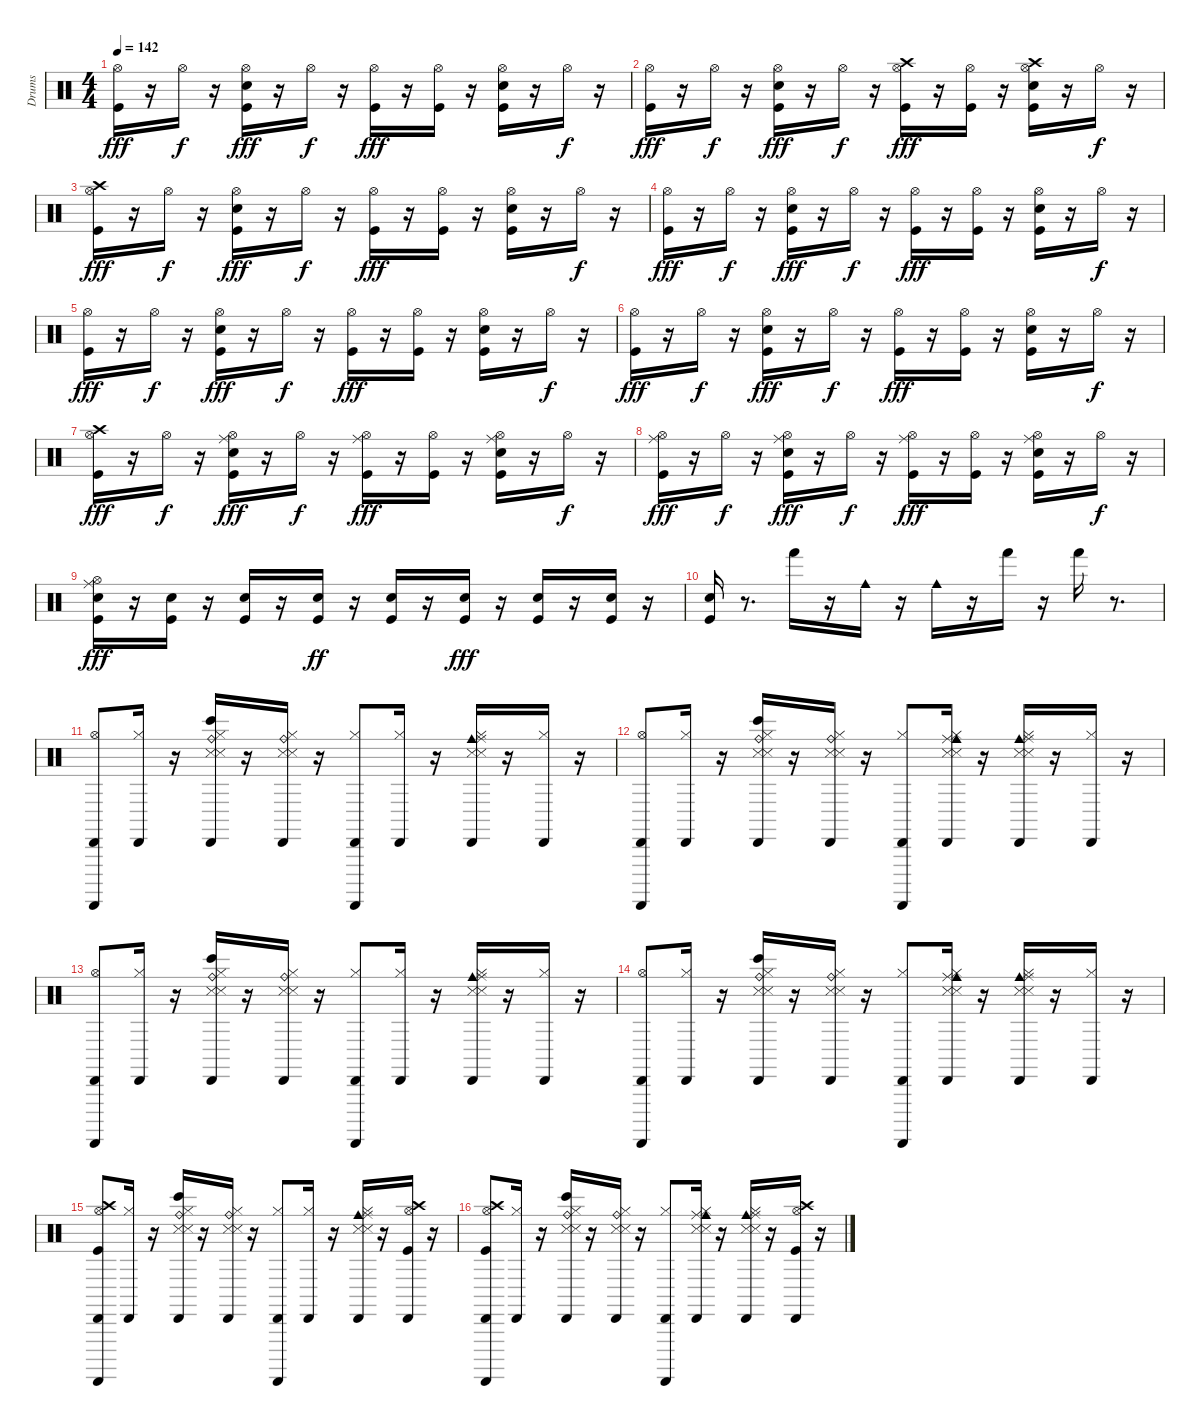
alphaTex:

\track ("Drums" "Drums") {instrument percussion}
\staff {score}
\articulation defaults
\ts (4 4)
\tempo 142
\clef neutral
\ks c
("Hi-Hat (open)" "Kick (hit)").16{dy fff} r.16 "Hi-Hat (open)".16{dy f} r.16 ("Snare (hit) 2" "Kick (hit)" "Hi-Hat (open)").16{dy fff} r.16 "Hi-Hat (open)".16{dy f} r.16 ("Kick (hit)" "Hi-Hat (open)").16{dy fff} r.16 ("Kick (hit)" "Hi-Hat (open)").16 r.16 ("Kick (hit)" "Snare (hit) 2" "Hi-Hat (open)").16 r.16 "Hi-Hat (open)".16{dy f} r.16 |
("Hi-Hat (open)" "Kick (hit)").16{dy fff} r.16 "Hi-Hat (open)".16{dy f} r.16 ("Snare (hit) 2" "Kick (hit)" "Hi-Hat (open)").16{dy fff} r.16 "Hi-Hat (open)".16{dy f} r.16 ("Kick (hit)" "Hi-Hat (open)" "Crash high (hit)").16{dy fff} r.16 ("Kick (hit)" "Hi-Hat (open)").16 r.16 ("Kick (hit)" "Snare (hit) 2" "Hi-Hat (open)" "Crash high (hit)").16 r.16 "Hi-Hat (open)".16{dy f} r.16 |
("Hi-Hat (open)" "Kick (hit)" "Crash high (hit)").16{dy fff} r.16 "Hi-Hat (open)".16{dy f} r.16 ("Snare (hit) 2" "Kick (hit)" "Hi-Hat (open)").16{dy fff} r.16 "Hi-Hat (open)".16{dy f} r.16 ("Kick (hit)" "Hi-Hat (open)").16{dy fff} r.16 ("Kick (hit)" "Hi-Hat (open)").16 r.16 ("Kick (hit)" "Snare (hit) 2" "Hi-Hat (open)").16 r.16 "Hi-Hat (open)".16{dy f} r.16 |
("Hi-Hat (open)" "Kick (hit)").16{dy fff} r.16 "Hi-Hat (open)".16{dy f} r.16 ("Snare (hit) 2" "Kick (hit)" "Hi-Hat (open)").16{dy fff} r.16 "Hi-Hat (open)".16{dy f} r.16 ("Kick (hit)" "Hi-Hat (open)").16{dy fff} r.16 ("Kick (hit)" "Hi-Hat (open)").16 r.16 ("Kick (hit)" "Snare (hit) 2" "Hi-Hat (open)").16 r.16 "Hi-Hat (open)".16{dy f} r.16 |
("Hi-Hat (open)" "Kick (hit)").16{dy fff} r.16 "Hi-Hat (open)".16{dy f} r.16 ("Snare (hit) 2" "Kick (hit)" "Hi-Hat (open)").16{dy fff} r.16 "Hi-Hat (open)".16{dy f} r.16 ("Kick (hit)" "Hi-Hat (open)").16{dy fff} r.16 ("Kick (hit)" "Hi-Hat (open)").16 r.16 ("Kick (hit)" "Snare (hit) 2" "Hi-Hat (open)").16 r.16 "Hi-Hat (open)".16{dy f} r.16 |
("Hi-Hat (open)" "Kick (hit)").16{dy fff} r.16 "Hi-Hat (open)".16{dy f} r.16 ("Snare (hit) 2" "Kick (hit)" "Hi-Hat (open)").16{dy fff} r.16 "Hi-Hat (open)".16{dy f} r.16 ("Kick (hit)" "Hi-Hat (open)").16{dy fff} r.16 ("Kick (hit)" "Hi-Hat (open)").16 r.16 ("Kick (hit)" "Snare (hit) 2" "Hi-Hat (open)").16 r.16 "Hi-Hat (open)".16{dy f} r.16 |
("Hi-Hat (open)" "Kick (hit)" "Crash high (hit)").16{dy fff} r.16 "Hi-Hat (open)".16{dy f} r.16 ("Snare (hit) 2" "Kick (hit)" "Hi-Hat (open)" "Ride (middle)").16{dy fff} r.16 "Hi-Hat (open)".16{dy f} r.16 ("Kick (hit)" "Hi-Hat (open)" "Ride (middle)").16{dy fff} r.16 ("Kick (hit)" "Hi-Hat (open)").16 r.16 ("Kick (hit)" "Snare (hit) 2" "Hi-Hat (open)" "Ride (middle)").16 r.16 "Hi-Hat (open)".16{dy f} r.16 |
("Hi-Hat (open)" "Kick (hit)" "Ride (middle)").16{dy fff} r.16 "Hi-Hat (open)".16{dy f} r.16 ("Snare (hit) 2" "Kick (hit)" "Hi-Hat (open)" "Ride (middle)").16{dy fff} r.16 "Hi-Hat (open)".16{dy f} r.16 ("Kick (hit)" "Hi-Hat (open)" "Ride (middle)").16{dy fff} r.16 ("Kick (hit)" "Hi-Hat (open)").16 r.16 ("Kick (hit)" "Snare (hit) 2" "Hi-Hat (open)" "Ride (middle)").16 r.16 "Hi-Hat (open)".16{dy f} r.16 |
("Hi-Hat (open)" "Kick (hit)" "Snare (hit) 2" "Ride (middle)").16{dy fff} r.16 ("Kick (hit)" "Snare (hit) 2").16 r.16 ("Kick (hit)" "Snare (hit) 2").16 r.16 ("Kick (hit)" "Snare (hit) 2").16{dy ff} r.16 ("Kick (hit)" "Snare (hit) 2").16 r.16 ("Kick (hit)" "Snare (hit) 2").16{dy fff} r.16 ("Kick (hit)" "Snare (hit) 2").16 r.16 ("Kick (hit)" "Snare (hit) 2").16 r.16 |
("Kick (hit)" "Snare (hit) 2").16 r.8{d} "Hand (hit)".16 r.16 "Cowbell medium (hit)".16 r.16 "Cowbell medium (hit)".16 r.16 "Hand (hit)".16 r.16 "Hand (hit)".16 r.8{d} |
("Guiro (scrap-return)" "Hi-Hat (open)" "Cabasa (hit)").8 ("Hi-Hat (closed)" "Cabasa (hit)").16 r.16 ("Hi-Hat (closed)" "Cabasa (hit)" "Bongo High (hit)" "Ride (bell)" "Metronome (hit)" "Snare (side stick) 3").16 r.16 ("Hi-Hat (closed)" "Cabasa (hit)" "Ride (bell)" "Metronome (hit)" "Snare (side stick) 3").16 r.16 ("Guiro (scrap-return)" "Hi-Hat (closed)" "Cabasa (hit)").8 ("Hi-Hat (closed)" "Cabasa (hit)").16 r.16 ("Hi-Hat (closed)" "Cabasa (hit)" "Cowbell medium (hit)" "Ride (middle)" "Metronome (hit)" "Snare (side stick) 3").16 r.16 ("Hi-Hat (closed)" "Cabasa (hit)").16 r.16 |
("Cabasa (hit)" "Hi-Hat (open)" "Guiro (scrap-return)").8 ("Hi-Hat (closed)" "Cabasa (hit)").16 r.16 ("Hi-Hat (closed)" "Cabasa (hit)" "Bongo High (hit)" "Ride (bell)" "Metronome (hit)" "Snare (side stick) 3").16 r.16 ("Hi-Hat (closed)" "Cabasa (hit)" "Ride (bell)" "Metronome (hit)" "Snare (side stick) 3").16 r.16 ("Guiro (scrap-return)" "Hi-Hat (closed)" "Cabasa (hit)").8 ("Hi-Hat (closed)" "Cabasa (hit)" "Ride (middle)" "Cowbell medium (hit)" "Snare (side stick) 3" "Metronome (hit)").16 r.16 ("Hi-Hat (closed)" "Cabasa (hit)" "Cowbell medium (hit)" "Ride (middle)" "Metronome (hit)" "Snare (side stick) 3").16 r.16 ("Hi-Hat (closed)" "Cabasa (hit)").16 r.16 |
("Cabasa (hit)" "Hi-Hat (open)" "Guiro (scrap-return)").8 ("Hi-Hat (closed)" "Cabasa (hit)").16 r.16 ("Hi-Hat (closed)" "Cabasa (hit)" "Bongo High (hit)" "Ride (bell)" "Metronome (hit)" "Snare (side stick) 3").16 r.16 ("Hi-Hat (closed)" "Cabasa (hit)" "Ride (bell)" "Metronome (hit)" "Snare (side stick) 3").16 r.16 ("Guiro (scrap-return)" "Hi-Hat (closed)" "Cabasa (hit)").8 ("Hi-Hat (closed)" "Cabasa (hit)").16 r.16 ("Hi-Hat (closed)" "Cabasa (hit)" "Cowbell medium (hit)" "Ride (middle)" "Metronome (hit)" "Snare (side stick) 3").16 r.16 ("Hi-Hat (closed)" "Cabasa (hit)").16 r.16 |
("Cabasa (hit)" "Hi-Hat (open)" "Guiro (scrap-return)").8 ("Hi-Hat (closed)" "Cabasa (hit)").16 r.16 ("Hi-Hat (closed)" "Cabasa (hit)" "Bongo High (hit)" "Ride (bell)" "Metronome (hit)" "Snare (side stick) 3").16 r.16 ("Hi-Hat (closed)" "Cabasa (hit)" "Ride (bell)" "Metronome (hit)" "Snare (side stick) 3").16 r.16 ("Guiro (scrap-return)" "Hi-Hat (closed)" "Cabasa (hit)").8 ("Hi-Hat (closed)" "Cabasa (hit)" "Ride (middle)" "Cowbell medium (hit)" "Snare (side stick) 3" "Metronome (hit)").16 r.16 ("Hi-Hat (closed)" "Cabasa (hit)" "Cowbell medium (hit)" "Ride (middle)" "Metronome (hit)" "Snare (side stick) 3").16 r.16 ("Hi-Hat (closed)" "Cabasa (hit)").16 r.16 |
("Cabasa (hit)" "Hi-Hat (open)" "Guiro (scrap-return)" "Crash high (hit)" "Kick (hit)").8 ("Hi-Hat (closed)" "Cabasa (hit)").16 r.16 ("Hi-Hat (closed)" "Cabasa (hit)" "Bongo High (hit)" "Ride (bell)" "Metronome (hit)" "Snare (side stick) 3").16 r.16 ("Hi-Hat (closed)" "Cabasa (hit)" "Ride (bell)" "Metronome (hit)" "Snare (side stick) 3").16 r.16 ("Guiro (scrap-return)" "Hi-Hat (closed)" "Cabasa (hit)").8 ("Hi-Hat (closed)" "Cabasa (hit)").16 r.16 ("Hi-Hat (closed)" "Cabasa (hit)" "Cowbell medium (hit)" "Ride (middle)" "Metronome (hit)" "Snare (side stick) 3").16 r.16 ("Cabasa (hit)" "Kick (hit)" "Hi-Hat (open)" "Crash high (hit)").16 r.16 |
("Cabasa (hit)" "Hi-Hat (open)" "Guiro (scrap-return)" "Kick (hit)" "Crash high (hit)").8 ("Hi-Hat (closed)" "Cabasa (hit)").16 r.16 ("Hi-Hat (closed)" "Cabasa (hit)" "Bongo High (hit)" "Ride (bell)" "Metronome (hit)" "Snare (side stick) 3").16 r.16 ("Hi-Hat (closed)" "Cabasa (hit)" "Ride (bell)" "Metronome (hit)" "Snare (side stick) 3").16 r.16 ("Guiro (scrap-return)" "Hi-Hat (closed)" "Cabasa (hit)").8 ("Hi-Hat (closed)" "Cabasa (hit)" "Ride (middle)" "Cowbell medium (hit)" "Snare (side stick) 3" "Metronome (hit)").16 r.16 ("Hi-Hat (closed)" "Cabasa (hit)" "Cowbell medium (hit)" "Ride (middle)" "Metronome (hit)" "Snare (side stick) 3").16 r.16 ("Cabasa (hit)" "Crash high (hit)" "Hi-Hat (open)" "Kick (hit)").16 r.16
